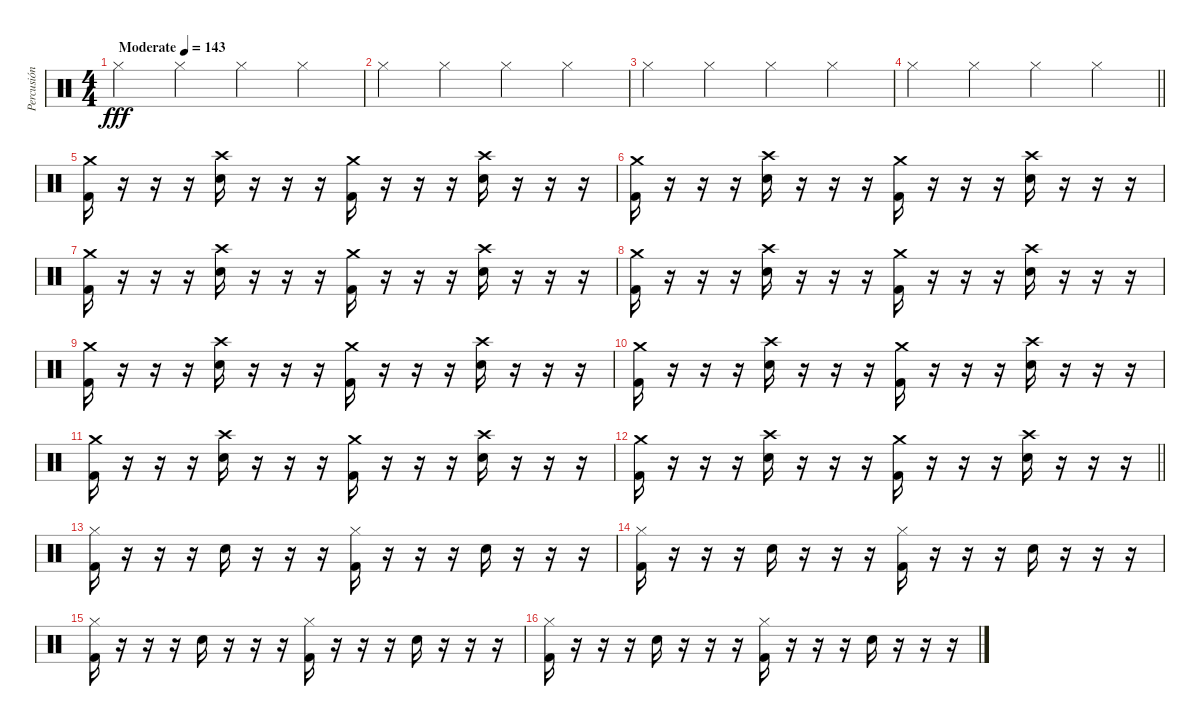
\track ("Percusión" "Percusión") {instrument percussion}
\staff {score}
\articulation defaults
\ts (4 4)
\tempo (143 "Moderate")
\clef neutral
\ks c "Hi-Hat (closed)".4{dy fff} "Hi-Hat (closed)".4 "Hi-Hat (closed)".4 "Hi-Hat (closed)".4
|
"Hi-Hat (closed)".4 "Hi-Hat (closed)".4 "Hi-Hat (closed)".4 "Hi-Hat (closed)".4 |
"Hi-Hat (closed)".4 "Hi-Hat (closed)".4 "Hi-Hat (closed)".4 "Hi-Hat (closed)".4 |
\barLineRight lightlight "Hi-Hat (closed)".4 "Hi-Hat (closed)".4 "Hi-Hat (closed)".4 "Hi-Hat (closed)".4
|
("Kick (hit) 2" "Crash medium (hit)").16 r.16 r.16 r.16 ("Snare (hit) 2" "Crash high (hit)").16 r.16 r.16 r.16 ("Kick (hit) 2" "Crash medium (hit)").16 r.16 r.16 r.16 ("Snare (hit) 2" "Crash high (hit)").16 r.16 r.16 r.16 |
("Kick (hit) 2" "Crash medium (hit)").16 r.16 r.16 r.16 ("Snare (hit) 2" "Crash high (hit)").16 r.16 r.16 r.16 ("Kick (hit) 2" "Crash medium (hit)").16 r.16 r.16 r.16 ("Snare (hit) 2" "Crash high (hit)").16 r.16 r.16 r.16 |
("Kick (hit) 2" "Crash medium (hit)").16 r.16 r.16 r.16 ("Snare (hit) 2" "Crash high (hit)").16 r.16 r.16 r.16 ("Kick (hit) 2" "Crash medium (hit)").16 r.16 r.16 r.16 ("Snare (hit) 2" "Crash high (hit)").16 r.16 r.16 r.16 |
("Kick (hit) 2" "Crash medium (hit)").16 r.16 r.16 r.16 ("Snare (hit) 2" "Crash high (hit)").16 r.16 r.16 r.16 ("Kick (hit) 2" "Crash medium (hit)").16 r.16 r.16 r.16 ("Snare (hit) 2" "Crash high (hit)").16 r.16 r.16 r.16 |
("Kick (hit) 2" "Crash medium (hit)").16 r.16 r.16 r.16 ("Snare (hit) 2" "Crash high (hit)").16 r.16 r.16 r.16 ("Kick (hit) 2" "Crash medium (hit)").16 r.16 r.16 r.16 ("Snare (hit) 2" "Crash high (hit)").16 r.16 r.16 r.16 |
("Kick (hit) 2" "Crash medium (hit)").16 r.16 r.16 r.16 ("Snare (hit) 2" "Crash high (hit)").16 r.16 r.16 r.16 ("Kick (hit) 2" "Crash medium (hit)").16 r.16 r.16 r.16 ("Snare (hit) 2" "Crash high (hit)").16 r.16 r.16 r.16 |
("Kick (hit) 2" "Crash medium (hit)").16 r.16 r.16 r.16 ("Snare (hit) 2" "Crash high (hit)").16 r.16 r.16 r.16 ("Kick (hit) 2" "Crash medium (hit)").16 r.16 r.16 r.16 ("Snare (hit) 2" "Crash high (hit)").16 r.16 r.16 r.16 |
\barLineRight lightlight
("Kick (hit) 2" "Crash medium (hit)").16 r.16 r.16 r.16 ("Snare (hit) 2" "Crash high (hit)").16 r.16 r.16 r.16 ("Kick (hit) 2" "Crash medium (hit)").16 r.16 r.16 r.16 ("Snare (hit) 2" "Crash high (hit)").16 r.16 r.16 r.16 |
("Kick (hit) 2" "Hi-Hat (closed)").16 r.16 r.16 r.16 "Snare (hit) 2".16 r.16 r.16 r.16 ("Kick (hit) 2" "Hi-Hat (closed)").16 r.16 r.16 r.16 "Snare (hit) 2".16 r.16 r.16 r.16 |
("Kick (hit) 2" "Hi-Hat (closed)").16 r.16 r.16 r.16 "Snare (hit) 2".16 r.16 r.16 r.16 ("Kick (hit) 2" "Hi-Hat (closed)").16 r.16 r.16 r.16 "Snare (hit) 2".16 r.16 r.16 r.16 |
("Kick (hit) 2" "Hi-Hat (closed)").16 r.16 r.16 r.16 "Snare (hit) 2".16 r.16 r.16 r.16 ("Kick (hit) 2" "Hi-Hat (closed)").16 r.16 r.16 r.16 "Snare (hit) 2".16 r.16 r.16 r.16 |
("Kick (hit) 2" "Hi-Hat (closed)").16 r.16 r.16 r.16 "Snare (hit) 2".16 r.16 r.16 r.16 ("Kick (hit) 2" "Hi-Hat (closed)").16 r.16 r.16 r.16 "Snare (hit) 2".16 r.16 r.16 r.16
